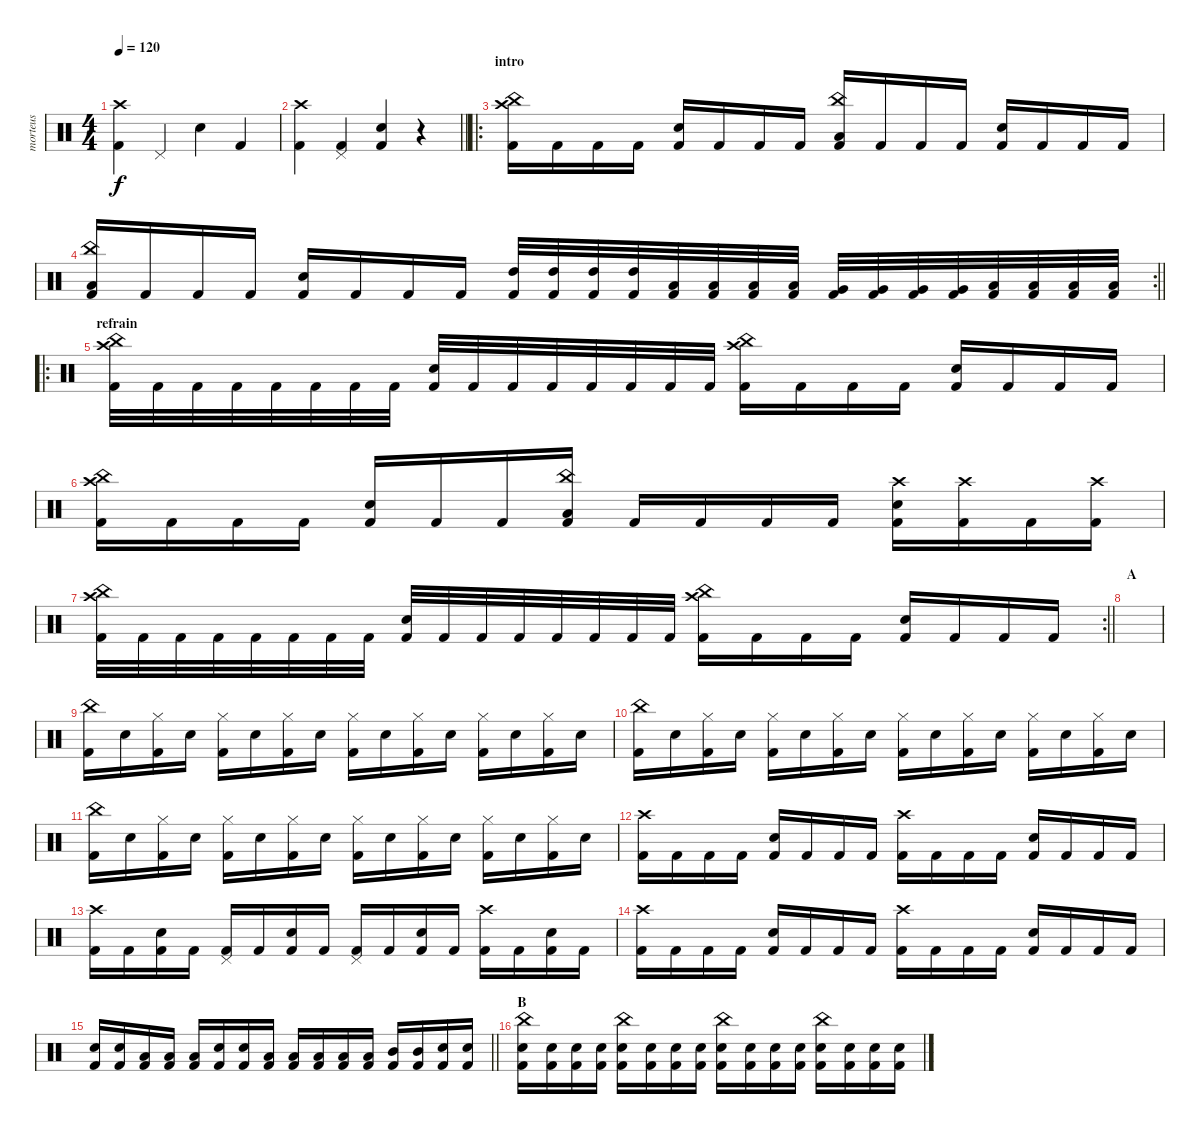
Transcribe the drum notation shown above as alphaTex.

\track ("morteus" "morteus") {instrument percussion}
\staff {score}
\articulation defaults
\ts (4 4)
\tempo 120
\clef neutral
\ks c
("Crash high (hit)" "Kick (hit) 2").4{dy f} "Pedal Hi-Hat (hit)".4 "Electric Snare (hit)".4 "Kick (hit) 2".4 |
\barLineRight lightlight
("Crash high (hit)" "Kick (hit) 2").4 ("Pedal Hi-Hat (hit)" "Kick (hit) 2").4 ("Electric Snare (hit)" "Kick (hit) 2").4 r.4 |
\ro
\section ("" "intro")
("China (hit)" "Crash high (hit)" "Kick (hit) 2").16 "Kick (hit) 2".16 "Kick (hit) 2".16 "Kick (hit) 2".16 ("Electric Snare (hit)" "Kick (hit) 2").16 "Kick (hit) 2".16 "Kick (hit) 2".16 "Kick (hit) 2".16 ("China (hit)" "Low Tom (hit)" "Kick (hit) 2").16 "Kick (hit) 2".16 "Kick (hit) 2".16 "Kick (hit) 2".16 ("Electric Snare (hit)" "Kick (hit) 2").16 "Kick (hit) 2".16 "Kick (hit) 2".16 "Kick (hit) 2".16 |
\rc 2
\barLineRight lightlight
("China (hit)" "Low Tom (hit)" "Kick (hit) 2").16 "Kick (hit) 2".16 "Kick (hit) 2".16 "Kick (hit) 2".16 ("Electric Snare (hit)" "Kick (hit) 2").16 "Kick (hit) 2".16 "Kick (hit) 2".16 "Kick (hit) 2".16 ("High Tom (hit)" "Kick (hit) 2").32 ("High Tom (hit)" "Kick (hit) 2").32 ("High Tom (hit)" "Kick (hit) 2").32 ("High Tom (hit)" "Kick (hit) 2").32 ("Low Tom (hit)" "Kick (hit) 2").32 ("Low Tom (hit)" "Kick (hit) 2").32 ("Low Tom (hit)" "Kick (hit) 2").32 ("Low Tom (hit)" "Kick (hit) 2").32 ("Very Low Tom (hit)" "Kick (hit) 2").32 ("Very Low Tom (hit)" "Kick (hit) 2").32 ("Very Low Tom (hit)" "Kick (hit) 2").32 ("Very Low Tom (hit)" "Kick (hit) 2").32 ("Low Floor Tom (hit)" "Kick (hit) 2").32 ("Low Floor Tom (hit)" "Kick (hit) 2").32 ("Low Floor Tom (hit)" "Kick (hit) 2").32 ("Low Floor Tom (hit)" "Kick (hit) 2").32 |
\ro
\section ("" "refrain")
("China (hit)" "Crash high (hit)" "Kick (hit) 2").32 "Kick (hit) 2".32 "Kick (hit) 2".32 "Kick (hit) 2".32 "Kick (hit) 2".32 "Kick (hit) 2".32 "Kick (hit) 2".32 "Kick (hit) 2".32 ("Electric Snare (hit)" "Kick (hit) 2").32 "Kick (hit) 2".32 "Kick (hit) 2".32 "Kick (hit) 2".32 "Kick (hit) 2".32 "Kick (hit) 2".32 "Kick (hit) 2".32 "Kick (hit) 2".32 ("China (hit)" "Crash high (hit)" "Kick (hit) 2").16 "Kick (hit) 2".16 "Kick (hit) 2".16 "Kick (hit) 2".16 ("Electric Snare (hit)" "Kick (hit) 2").16 "Kick (hit) 2".16 "Kick (hit) 2".16 "Kick (hit) 2".16 |
("China (hit)" "Crash high (hit)" "Kick (hit) 2").16 "Kick (hit) 2".16 "Kick (hit) 2".16 "Kick (hit) 2".16 ("Electric Snare (hit)" "Kick (hit) 2").16 "Kick (hit) 2".16 "Kick (hit) 2".16 ("China (hit)" "Low Tom (hit)" "Kick (hit) 2").16 "Kick (hit) 2".16 "Kick (hit) 2".16 "Kick (hit) 2".16 "Kick (hit) 2".16 ("Crash high (hit)" "Electric Snare (hit)" "Kick (hit) 2").16 ("Crash high (hit)" "Kick (hit) 2").16 "Kick (hit) 2".16 ("Crash high (hit)" "Kick (hit) 2").16 |
\rc 2
\barLineRight lightlight
("China (hit)" "Crash high (hit)" "Kick (hit) 2").32 "Kick (hit) 2".32 "Kick (hit) 2".32 "Kick (hit) 2".32 "Kick (hit) 2".32 "Kick (hit) 2".32 "Kick (hit) 2".32 "Kick (hit) 2".32 ("Electric Snare (hit)" "Kick (hit) 2").32 "Kick (hit) 2".32 "Kick (hit) 2".32 "Kick (hit) 2".32 "Kick (hit) 2".32 "Kick (hit) 2".32 "Kick (hit) 2".32 "Kick (hit) 2".32 ("China (hit)" "Crash high (hit)" "Kick (hit) 2").16 "Kick (hit) 2".16 "Kick (hit) 2".16 "Kick (hit) 2".16 ("Electric Snare (hit)" "Kick (hit) 2").16 "Kick (hit) 2".16 "Kick (hit) 2".16 "Kick (hit) 2".16 |
\section ("" "A")
|
("China (hit)" "Kick (hit) 2").16 "Electric Snare (hit)".16 ("Hi-Hat (closed)" "Kick (hit) 2").16 "Electric Snare (hit)".16 ("Hi-Hat (closed)" "Kick (hit) 2").16 "Electric Snare (hit)".16 ("Hi-Hat (closed)" "Kick (hit) 2").16 "Electric Snare (hit)".16 ("Hi-Hat (closed)" "Kick (hit) 2").16 "Electric Snare (hit)".16 ("Hi-Hat (closed)" "Kick (hit) 2").16 "Electric Snare (hit)".16 ("Hi-Hat (closed)" "Kick (hit) 2").16 "Electric Snare (hit)".16 ("Hi-Hat (closed)" "Kick (hit) 2").16 "Electric Snare (hit)".16 |
("China (hit)" "Kick (hit) 2").16 "Electric Snare (hit)".16 ("Hi-Hat (closed)" "Kick (hit) 2").16 "Electric Snare (hit)".16 ("Hi-Hat (closed)" "Kick (hit) 2").16 "Electric Snare (hit)".16 ("Hi-Hat (closed)" "Kick (hit) 2").16 "Electric Snare (hit)".16 ("Hi-Hat (closed)" "Kick (hit) 2").16 "Electric Snare (hit)".16 ("Hi-Hat (closed)" "Kick (hit) 2").16 "Electric Snare (hit)".16 ("Hi-Hat (closed)" "Kick (hit) 2").16 "Electric Snare (hit)".16 ("Hi-Hat (closed)" "Kick (hit) 2").16 "Electric Snare (hit)".16 |
("China (hit)" "Kick (hit) 2").16 "Electric Snare (hit)".16 ("Hi-Hat (closed)" "Kick (hit) 2").16 "Electric Snare (hit)".16 ("Hi-Hat (closed)" "Kick (hit) 2").16 "Electric Snare (hit)".16 ("Hi-Hat (closed)" "Kick (hit) 2").16 "Electric Snare (hit)".16 ("Hi-Hat (closed)" "Kick (hit) 2").16 "Electric Snare (hit)".16 ("Hi-Hat (closed)" "Kick (hit) 2").16 "Electric Snare (hit)".16 ("Hi-Hat (closed)" "Kick (hit) 2").16 "Electric Snare (hit)".16 ("Hi-Hat (closed)" "Kick (hit) 2").16 "Electric Snare (hit)".16 |
("Crash high (hit)" "Kick (hit) 2").16 "Kick (hit) 2".16 "Kick (hit) 2".16 "Kick (hit) 2".16 ("Electric Snare (hit)" "Kick (hit) 2").16 "Kick (hit) 2".16 "Kick (hit) 2".16 "Kick (hit) 2".16 ("Crash high (hit)" "Kick (hit) 2").16 "Kick (hit) 2".16 "Kick (hit) 2".16 "Kick (hit) 2".16 ("Electric Snare (hit)" "Kick (hit) 2").16 "Kick (hit) 2".16 "Kick (hit) 2".16 "Kick (hit) 2".16 |
("Crash high (hit)" "Kick (hit) 2").16 "Kick (hit) 2".16 ("Electric Snare (hit)" "Kick (hit) 2").16 "Kick (hit) 2".16 ("Pedal Hi-Hat (hit)" "Kick (hit) 2").16 "Kick (hit) 2".16 ("Electric Snare (hit)" "Kick (hit) 2").16 "Kick (hit) 2".16 ("Pedal Hi-Hat (hit)" "Kick (hit) 2").16 "Kick (hit) 2".16 ("Electric Snare (hit)" "Kick (hit) 2").16 "Kick (hit) 2".16 ("Crash high (hit)" "Kick (hit) 2").16 "Kick (hit) 2".16 ("Electric Snare (hit)" "Kick (hit) 2").16 "Kick (hit) 2".16 |
("Crash high (hit)" "Kick (hit) 2").16 "Kick (hit) 2".16 "Kick (hit) 2".16 "Kick (hit) 2".16 ("Electric Snare (hit)" "Kick (hit) 2").16 "Kick (hit) 2".16 "Kick (hit) 2".16 "Kick (hit) 2".16 ("Crash high (hit)" "Kick (hit) 2").16 "Kick (hit) 2".16 "Kick (hit) 2".16 "Kick (hit) 2".16 ("Electric Snare (hit)" "Kick (hit) 2").16 "Kick (hit) 2".16 "Kick (hit) 2".16 "Kick (hit) 2".16 |
\barLineRight lightlight
("Electric Snare (hit)" "Kick (hit) 2").16 ("Electric Snare (hit)" "Kick (hit) 2").16 ("Low Tom (hit)" "Kick (hit) 2").16 ("Low Tom (hit)" "Kick (hit) 2").16 ("Low Tom (hit)" "Kick (hit) 2").16 ("Electric Snare (hit)" "Kick (hit) 2").16 ("Electric Snare (hit)" "Kick (hit) 2").16 ("Low Tom (hit)" "Kick (hit) 2").16 ("Low Tom (hit)" "Kick (hit) 2").16 ("Low Tom (hit)" "Kick (hit) 2").16 ("Low Floor Tom (hit)" "Kick (hit) 2").16 ("Low Floor Tom (hit)" "Kick (hit) 2").16 ("Mid Tom (hit)" "Kick (hit) 2").16 ("Mid Tom (hit)" "Kick (hit) 2").16 ("Electric Snare (hit)" "Kick (hit) 2").16 ("Electric Snare (hit)" "Kick (hit) 2").16 |
\section ("" "B")
("China (hit)" "Electric Snare (hit)" "Kick (hit) 2").16 ("Electric Snare (hit)" "Kick (hit) 2").16 ("Electric Snare (hit)" "Kick (hit) 2").16 ("Electric Snare (hit)" "Kick (hit) 2").16 ("China (hit)" "Electric Snare (hit)" "Kick (hit) 2").16 ("Electric Snare (hit)" "Kick (hit) 2").16 ("Electric Snare (hit)" "Kick (hit) 2").16 ("Electric Snare (hit)" "Kick (hit) 2").16 ("China (hit)" "Electric Snare (hit)" "Kick (hit) 2").16 ("Electric Snare (hit)" "Kick (hit) 2").16 ("Electric Snare (hit)" "Kick (hit) 2").16 ("Electric Snare (hit)" "Kick (hit) 2").16 ("China (hit)" "Electric Snare (hit)" "Kick (hit) 2").16 ("Electric Snare (hit)" "Kick (hit) 2").16 ("Electric Snare (hit)" "Kick (hit) 2").16 ("Electric Snare (hit)" "Kick (hit) 2").16
